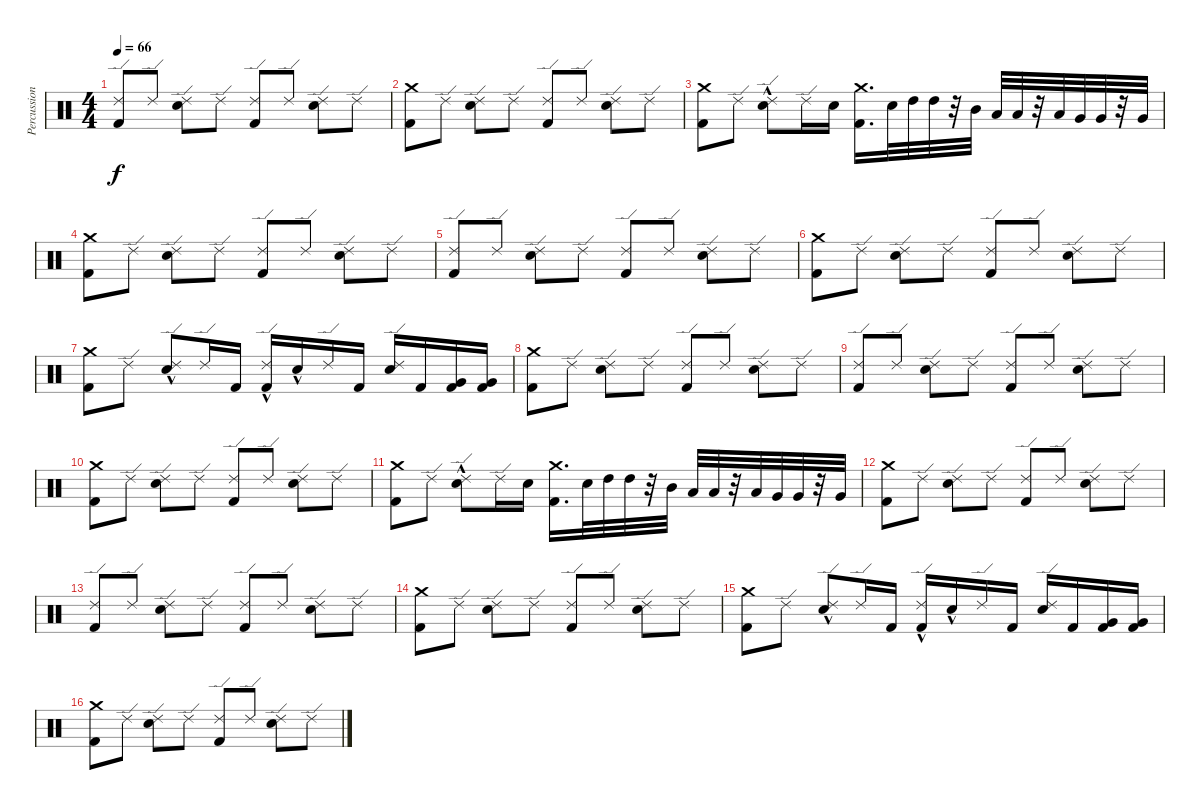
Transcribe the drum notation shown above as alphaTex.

\track ("Percussioni" "Percussion") {instrument percussion}
\staff {score}
\articulation defaults
\ts (4 4)
\tempo 66
\clef neutral
\ks c
("Ride (edge) 2" "Kick (hit) 2").8{dy f} "Ride (edge) 2".8 ("Ride (edge) 2" "Snare (hit) 2").8 "Ride (edge) 2".8 ("Ride (edge) 2" "Kick (hit) 2").8 "Ride (edge) 2".8 ("Ride (edge) 2" "Snare (hit) 2").8 "Ride (edge) 2".8 |
("Crash medium (hit)" "Kick (hit) 2").8 "Ride (edge) 2".8 ("Ride (edge) 2" "Snare (hit) 2").8 "Ride (edge) 2".8 ("Ride (edge) 2" "Kick (hit) 2").8 "Ride (edge) 2".8 ("Ride (edge) 2" "Snare (hit) 2").8 "Ride (edge) 2".8 |
("Crash medium (hit)" "Kick (hit) 2").8 "Ride (edge) 2".8 ("Snare (hit) 2"{hac} "Ride (edge) 2").8 "Ride (edge) 2".16 "Snare (hit) 2".16 ("Crash medium (hit)" "Kick (hit) 2").16{d} "Snare (hit) 2".32 "High Tom (hit)".32 "High Tom (hit)".32 r.32 "Mid Tom (hit)".32 "Low Tom (hit)".32 "Low Tom (hit)".32 r.32 "Low Tom (hit)".32 "Very Low Tom (hit)".32 "Very Low Tom (hit)".32 r.32 "Very Low Tom (hit)".32 |
("Kick (hit) 2" "Crash medium (hit)").8 "Ride (edge) 2".8 ("Snare (hit) 2" "Ride (edge) 2").8 "Ride (edge) 2".8 ("Kick (hit) 2" "Ride (edge) 2").8 "Ride (edge) 2".8 ("Snare (hit) 2" "Ride (edge) 2").8 "Ride (edge) 2".8 |
("Ride (edge) 2" "Kick (hit) 2").8 "Ride (edge) 2".8 ("Ride (edge) 2" "Snare (hit) 2").8 "Ride (edge) 2".8 ("Ride (edge) 2" "Kick (hit) 2").8 "Ride (edge) 2".8 ("Ride (edge) 2" "Snare (hit) 2").8 "Ride (edge) 2".8 |
("Crash medium (hit)" "Kick (hit) 2").8 "Ride (edge) 2".8 ("Ride (edge) 2" "Snare (hit) 2").8 "Ride (edge) 2".8 ("Ride (edge) 2" "Kick (hit) 2").8 "Ride (edge) 2".8 ("Ride (edge) 2" "Snare (hit) 2").8 "Ride (edge) 2".8 |
("Kick (hit) 2" "Crash medium (hit)").8 "Ride (edge) 2".8 ("Snare (hit) 2"{hac} "Ride (edge) 2").8 "Ride (edge) 2".16 "Kick (hit) 2".16 ("Kick (hit) 2"{hac} "Ride (edge) 2").16 "Snare (hit) 2"{hac}.16 "Ride (edge) 2".16 "Kick (hit) 2".16 ("Snare (hit) 2" "Ride (edge) 2").16 "Kick (hit) 2".16 ("Kick (hit) 2" "Very Low Tom (hit)").16 ("Kick (hit) 2" "Very Low Tom (hit)").16 |
("Kick (hit) 2" "Crash medium (hit)").8 "Ride (edge) 2".8 ("Snare (hit) 2" "Ride (edge) 2").8 "Ride (edge) 2".8 ("Kick (hit) 2" "Ride (edge) 2").8 "Ride (edge) 2".8 ("Snare (hit) 2" "Ride (edge) 2").8 "Ride (edge) 2".8 |
("Ride (edge) 2" "Kick (hit) 2").8 "Ride (edge) 2".8 ("Ride (edge) 2" "Snare (hit) 2").8 "Ride (edge) 2".8 ("Ride (edge) 2" "Kick (hit) 2").8 "Ride (edge) 2".8 ("Ride (edge) 2" "Snare (hit) 2").8 "Ride (edge) 2".8 |
("Crash medium (hit)" "Kick (hit) 2").8 "Ride (edge) 2".8 ("Ride (edge) 2" "Snare (hit) 2").8 "Ride (edge) 2".8 ("Ride (edge) 2" "Kick (hit) 2").8 "Ride (edge) 2".8 ("Ride (edge) 2" "Snare (hit) 2").8 "Ride (edge) 2".8 |
("Crash medium (hit)" "Kick (hit) 2").8 "Ride (edge) 2".8 ("Snare (hit) 2"{hac} "Ride (edge) 2").8 "Ride (edge) 2".16 "Snare (hit) 2".16 ("Crash medium (hit)" "Kick (hit) 2").16{d} "Snare (hit) 2".32 "High Tom (hit)".32 "High Tom (hit)".32 r.32 "Mid Tom (hit)".32 "Low Tom (hit)".32 "Low Tom (hit)".32 r.32 "Low Tom (hit)".32 "Very Low Tom (hit)".32 "Very Low Tom (hit)".32 r.32 "Very Low Tom (hit)".32 |
("Kick (hit) 2" "Crash medium (hit)").8 "Ride (edge) 2".8 ("Snare (hit) 2" "Ride (edge) 2").8 "Ride (edge) 2".8 ("Kick (hit) 2" "Ride (edge) 2").8 "Ride (edge) 2".8 ("Snare (hit) 2" "Ride (edge) 2").8 "Ride (edge) 2".8 |
("Ride (edge) 2" "Kick (hit) 2").8 "Ride (edge) 2".8 ("Ride (edge) 2" "Snare (hit) 2").8 "Ride (edge) 2".8 ("Ride (edge) 2" "Kick (hit) 2").8 "Ride (edge) 2".8 ("Ride (edge) 2" "Snare (hit) 2").8 "Ride (edge) 2".8 |
("Crash medium (hit)" "Kick (hit) 2").8 "Ride (edge) 2".8 ("Ride (edge) 2" "Snare (hit) 2").8 "Ride (edge) 2".8 ("Ride (edge) 2" "Kick (hit) 2").8 "Ride (edge) 2".8 ("Ride (edge) 2" "Snare (hit) 2").8 "Ride (edge) 2".8 |
("Kick (hit) 2" "Crash medium (hit)").8 "Ride (edge) 2".8 ("Snare (hit) 2"{hac} "Ride (edge) 2").8 "Ride (edge) 2".16 "Kick (hit) 2".16 ("Kick (hit) 2"{hac} "Ride (edge) 2").16 "Snare (hit) 2"{hac}.16 "Ride (edge) 2".16 "Kick (hit) 2".16 ("Snare (hit) 2" "Ride (edge) 2").16 "Kick (hit) 2".16 ("Kick (hit) 2" "Very Low Tom (hit)").16 ("Kick (hit) 2" "Very Low Tom (hit)").16 |
("Kick (hit) 2" "Crash medium (hit)").8 "Ride (edge) 2".8 ("Snare (hit) 2" "Ride (edge) 2").8 "Ride (edge) 2".8 ("Kick (hit) 2" "Ride (edge) 2").8 "Ride (edge) 2".8 ("Snare (hit) 2" "Ride (edge) 2").8 "Ride (edge) 2".8
